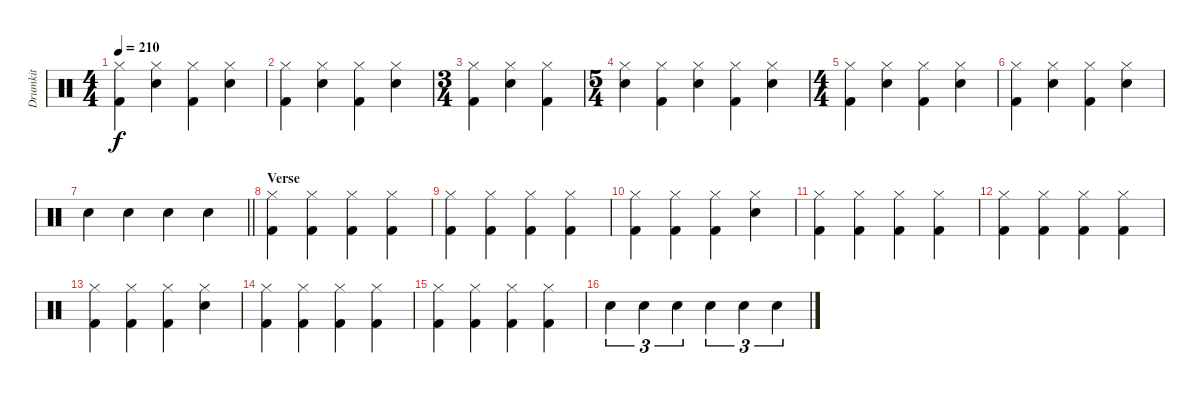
\track ("Drumkit" "Drumkit") {instrument percussion}
\staff {score}
\articulation defaults
\ts (4 4)
\tempo 210
\clef neutral
\ks c
("Hi-Hat (closed)" "Kick (hit) 2").4{dy f} ("Hi-Hat (closed)" "Electric Snare (hit)").4 ("Hi-Hat (closed)" "Kick (hit) 2").4 ("Hi-Hat (closed)" "Electric Snare (hit)").4 |
("Hi-Hat (closed)" "Kick (hit) 2").4 ("Hi-Hat (closed)" "Electric Snare (hit)").4 ("Hi-Hat (closed)" "Kick (hit) 2").4 ("Hi-Hat (closed)" "Electric Snare (hit)").4 |
\ts (3 4)
("Hi-Hat (closed)" "Kick (hit) 2").4 ("Hi-Hat (closed)" "Electric Snare (hit)").4 ("Hi-Hat (closed)" "Kick (hit) 2").4 |
\ts (5 4)
("Hi-Hat (closed)" "Electric Snare (hit)").4 ("Hi-Hat (closed)" "Kick (hit) 2").4 ("Hi-Hat (closed)" "Electric Snare (hit)").4 ("Hi-Hat (closed)" "Kick (hit) 2").4 ("Hi-Hat (closed)" "Electric Snare (hit)").4 |
\ts (4 4)
("Hi-Hat (closed)" "Kick (hit) 2").4 ("Hi-Hat (closed)" "Electric Snare (hit)").4 ("Hi-Hat (closed)" "Kick (hit) 2").4 ("Hi-Hat (closed)" "Electric Snare (hit)").4 |
("Hi-Hat (closed)" "Kick (hit) 2").4 ("Hi-Hat (closed)" "Electric Snare (hit)").4 ("Hi-Hat (closed)" "Kick (hit) 2").4 ("Hi-Hat (closed)" "Electric Snare (hit)").4 |
\barLineRight lightlight "Electric Snare (hit)".4 "Electric Snare (hit)".4 "Electric Snare (hit)".4 "Electric Snare (hit)".4
|
\section ("" "Verse")
("Hi-Hat (closed)" "Kick (hit) 2").4 ("Hi-Hat (closed)" "Kick (hit) 2").4 ("Hi-Hat (closed)" "Kick (hit) 2").4 ("Hi-Hat (closed)" "Kick (hit) 2").4 |
("Hi-Hat (closed)" "Kick (hit) 2").4 ("Hi-Hat (closed)" "Kick (hit) 2").4 ("Hi-Hat (closed)" "Kick (hit) 2").4 ("Hi-Hat (closed)" "Kick (hit) 2").4 |
("Hi-Hat (closed)" "Kick (hit) 2").4 ("Hi-Hat (closed)" "Kick (hit) 2").4 ("Hi-Hat (closed)" "Kick (hit) 2").4 ("Hi-Hat (closed)" "Electric Snare (hit)").4 |
("Hi-Hat (closed)" "Kick (hit) 2").4 ("Hi-Hat (closed)" "Kick (hit) 2").4 ("Hi-Hat (closed)" "Kick (hit) 2").4 ("Hi-Hat (closed)" "Kick (hit) 2").4 |
("Hi-Hat (closed)" "Kick (hit) 2").4 ("Hi-Hat (closed)" "Kick (hit) 2").4 ("Hi-Hat (closed)" "Kick (hit) 2").4 ("Hi-Hat (closed)" "Kick (hit) 2").4 |
("Hi-Hat (closed)" "Kick (hit) 2").4 ("Hi-Hat (closed)" "Kick (hit) 2").4 ("Hi-Hat (closed)" "Kick (hit) 2").4 ("Hi-Hat (closed)" "Electric Snare (hit)").4 |
("Hi-Hat (closed)" "Kick (hit) 2").4 ("Hi-Hat (closed)" "Kick (hit) 2").4 ("Hi-Hat (closed)" "Kick (hit) 2").4 ("Hi-Hat (closed)" "Kick (hit) 2").4 |
("Hi-Hat (closed)" "Kick (hit) 2").4 ("Hi-Hat (closed)" "Kick (hit) 2").4 ("Hi-Hat (closed)" "Kick (hit) 2").4 ("Hi-Hat (closed)" "Kick (hit) 2").4 |
"Electric Snare (hit)".4{tu (3 2)} "Electric Snare (hit)".4{tu (3 2)} "Electric Snare (hit)".4{tu (3 2)} "Electric Snare (hit)".4{tu (3 2)} "Electric Snare (hit)".4{tu (3 2)} "Electric Snare (hit)".4{tu (3 2)}
